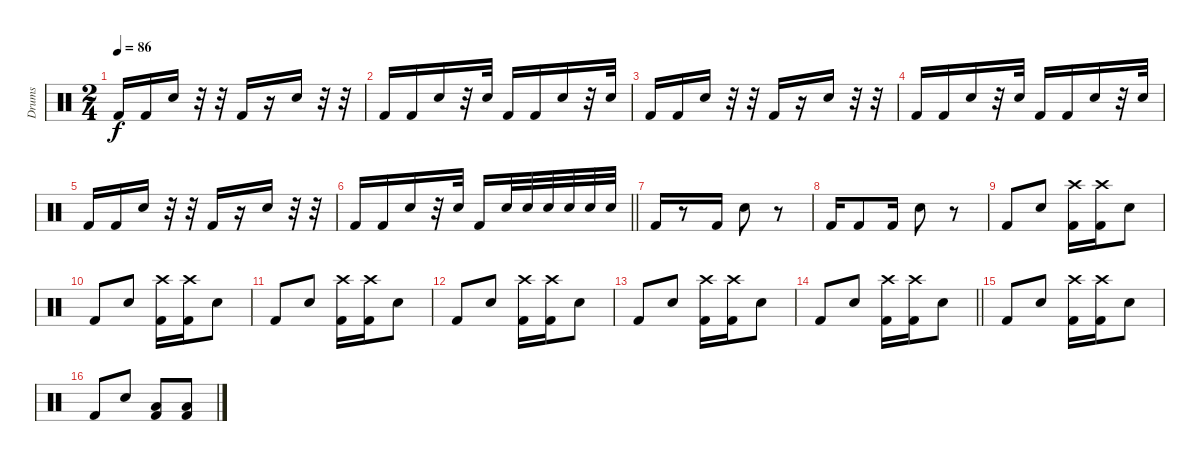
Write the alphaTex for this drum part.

\track ("Drums" "Drums") {instrument percussion}
\staff {score}
\articulation defaults
\ts (2 4)
\tempo 86
\clef neutral
\ks c "Kick (hit) 2".16{dy f} "Kick (hit) 2".16 "Snare (hit) 2".16
r.32 r.32 "Kick (hit) 2".16 r.16 "Snare (hit) 2".16 r.32 r.32 |
"Kick (hit) 2".16 "Kick (hit) 2".16 "Snare (hit) 2".16 r.32 "Snare (hit) 2".32 "Kick (hit) 2".16 "Kick (hit) 2".16 "Snare (hit) 2".16 r.32 "Snare (hit) 2".32 |
"Kick (hit) 2".16 "Kick (hit) 2".16 "Snare (hit) 2".16 r.32 r.32 "Kick (hit) 2".16 r.16 "Snare (hit) 2".16 r.32 r.32 |
"Kick (hit) 2".16 "Kick (hit) 2".16 "Snare (hit) 2".16 r.32 "Snare (hit) 2".32 "Kick (hit) 2".16 "Kick (hit) 2".16 "Snare (hit) 2".16 r.32 "Snare (hit) 2".32 |
"Kick (hit) 2".16 "Kick (hit) 2".16 "Snare (hit) 2".16 r.32 r.32 "Kick (hit) 2".16 r.16 "Snare (hit) 2".16 r.32 r.32 |
\barLineRight lightlight "Kick (hit) 2".16 "Kick (hit) 2".16 "Snare (hit) 2".16
r.32 "Snare (hit) 2".32 "Kick (hit) 2".16 "Snare (hit) 2".32 "Snare (hit) 2".32 "Snare (hit) 2".32 "Snare (hit) 2".32 "Snare (hit) 2".32 "Snare (hit) 2".32 |
"Kick (hit) 2".16 r.8 "Kick (hit) 2".16 "Snare (hit) 2".8 r.8 |
"Kick (hit) 2".16 "Kick (hit) 2".8 "Kick (hit) 2".16 "Snare (hit) 2".8 r.8 |
"Kick (hit) 2".8 "Snare (hit) 2".8 ("Crash high (hit)" "Kick (hit) 2").16 ("Crash high (hit)" "Kick (hit) 2").16 "Snare (hit) 2".8 |
"Kick (hit) 2".8 "Snare (hit) 2".8 ("Crash high (hit)" "Kick (hit) 2").16 ("Crash high (hit)" "Kick (hit) 2").16 "Snare (hit) 2".8 |
"Kick (hit) 2".8 "Snare (hit) 2".8 ("Crash high (hit)" "Kick (hit) 2").16 ("Crash high (hit)" "Kick (hit) 2").16 "Snare (hit) 2".8 |
"Kick (hit) 2".8 "Snare (hit) 2".8 ("Crash high (hit)" "Kick (hit) 2").16 ("Crash high (hit)" "Kick (hit) 2").16 "Snare (hit) 2".8 |
"Kick (hit) 2".8 "Snare (hit) 2".8 ("Crash high (hit)" "Kick (hit) 2").16 ("Crash high (hit)" "Kick (hit) 2").16 "Snare (hit) 2".8 |
\barLineRight lightlight "Kick (hit) 2".8 "Snare (hit) 2".8
("Crash high (hit)" "Kick (hit) 2").16 ("Crash high (hit)" "Kick (hit) 2").16 "Snare (hit) 2".8 |
"Kick (hit) 2".8 "Snare (hit) 2".8 ("Crash high (hit)" "Kick (hit) 2").16 ("Crash high (hit)" "Kick (hit) 2").16 "Snare (hit) 2".8 |
"Kick (hit) 2".8 "Snare (hit) 2".8 ("Kick (hit) 2" "Low Floor Tom (hit)").8 ("Kick (hit) 2" "Low Floor Tom (hit)").8
